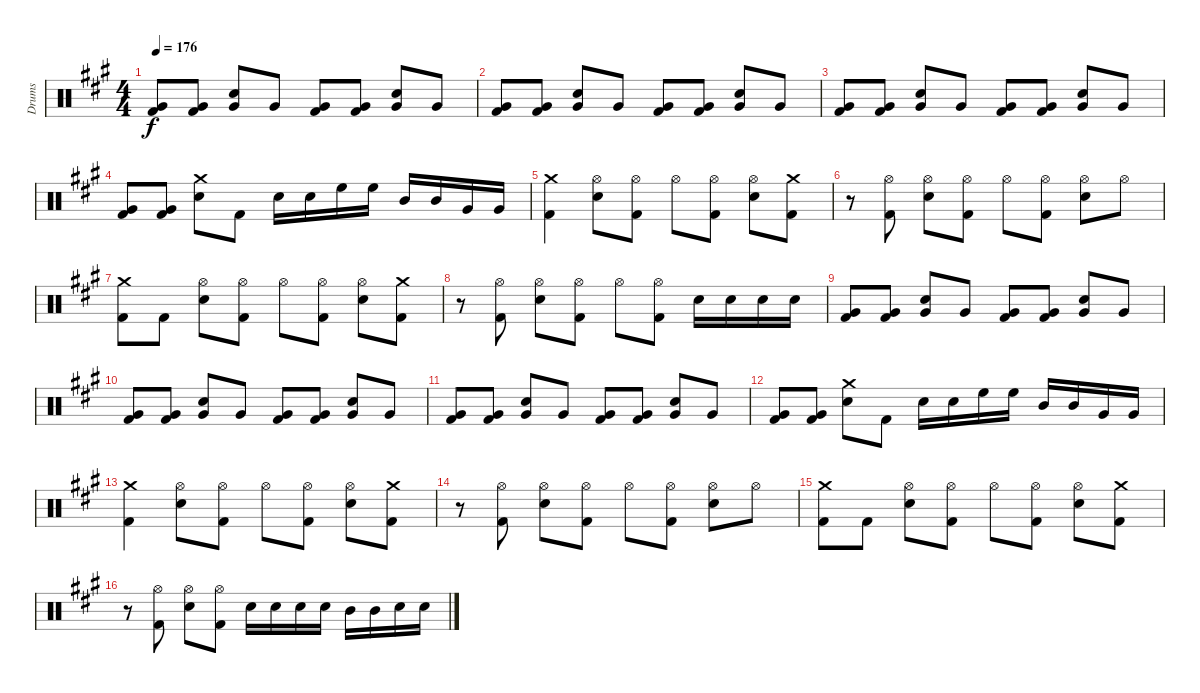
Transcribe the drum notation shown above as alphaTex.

\track ("Drums" "Drums") {instrument percussion}
\staff {score}
\articulation defaults
\ts (4 4)
\tempo 176
\clef neutral
\ks a
("Very Low Tom (hit)" "Kick (hit) 2").8{dy f} ("Very Low Tom (hit)" "Kick (hit) 2").8 ("Electric Snare (hit)" "Very Low Tom (hit)").8 "Very Low Tom (hit)".8 ("Very Low Tom (hit)" "Kick (hit) 2").8 ("Very Low Tom (hit)" "Kick (hit) 2").8 ("Electric Snare (hit)" "Very Low Tom (hit)").8 "Very Low Tom (hit)".8 |
("Very Low Tom (hit)" "Kick (hit) 2").8 ("Very Low Tom (hit)" "Kick (hit) 2").8 ("Electric Snare (hit)" "Very Low Tom (hit)").8 "Very Low Tom (hit)".8 ("Very Low Tom (hit)" "Kick (hit) 2").8 ("Very Low Tom (hit)" "Kick (hit) 2").8 ("Electric Snare (hit)" "Very Low Tom (hit)").8 "Very Low Tom (hit)".8 |
("Very Low Tom (hit)" "Kick (hit) 2").8 ("Very Low Tom (hit)" "Kick (hit) 2").8 ("Electric Snare (hit)" "Very Low Tom (hit)").8 "Very Low Tom (hit)".8 ("Very Low Tom (hit)" "Kick (hit) 2").8 ("Very Low Tom (hit)" "Kick (hit) 2").8 ("Electric Snare (hit)" "Very Low Tom (hit)").8 "Very Low Tom (hit)".8 |
("Very Low Tom (hit)" "Kick (hit) 2").8 ("Very Low Tom (hit)" "Kick (hit) 2").8 ("Crash medium (hit)" "Electric Snare (hit)").8 "Kick (hit) 2".8 "Electric Snare (hit)".16 "Electric Snare (hit)".16 "High Floor Tom (hit)".16 "High Floor Tom (hit)".16 "Mid Tom (hit)".16 "Mid Tom (hit)".16 "Very Low Tom (hit)".16 "Very Low Tom (hit)".16 |
("Crash medium (hit)" "Kick (hit) 2").4 ("Hi-Hat (open)" "Electric Snare (hit)").8 ("Hi-Hat (open)" "Kick (hit) 2").8 "Hi-Hat (open)".8 ("Hi-Hat (open)" "Kick (hit) 2").8 ("Hi-Hat (open)" "Electric Snare (hit)").8 ("Crash medium (hit)" "Kick (hit) 2").8 |
r.8 ("Hi-Hat (open)" "Kick (hit) 2").8 ("Hi-Hat (open)" "Electric Snare (hit)").8 ("Hi-Hat (open)" "Kick (hit) 2").8 "Hi-Hat (open)".8 ("Hi-Hat (open)" "Kick (hit) 2").8 ("Hi-Hat (open)" "Electric Snare (hit)").8 "Hi-Hat (open)".8 |
("Crash medium (hit)" "Kick (hit) 2").8 "Kick (hit) 2".8 ("Hi-Hat (open)" "Electric Snare (hit)").8 ("Hi-Hat (open)" "Kick (hit) 2").8 "Hi-Hat (open)".8 ("Hi-Hat (open)" "Kick (hit) 2").8 ("Hi-Hat (open)" "Electric Snare (hit)").8 ("Crash medium (hit)" "Kick (hit) 2").8 |
r.8 ("Hi-Hat (open)" "Kick (hit) 2").8 ("Hi-Hat (open)" "Electric Snare (hit)").8 ("Hi-Hat (open)" "Kick (hit) 2").8 "Hi-Hat (open)".8 ("Hi-Hat (open)" "Kick (hit) 2").8 "Electric Snare (hit)".16 "Electric Snare (hit)".16 "Electric Snare (hit)".16 "Electric Snare (hit)".16 |
("Very Low Tom (hit)" "Kick (hit) 2").8 ("Very Low Tom (hit)" "Kick (hit) 2").8 ("Electric Snare (hit)" "Very Low Tom (hit)").8 "Very Low Tom (hit)".8 ("Very Low Tom (hit)" "Kick (hit) 2").8 ("Very Low Tom (hit)" "Kick (hit) 2").8 ("Electric Snare (hit)" "Very Low Tom (hit)").8 "Very Low Tom (hit)".8 |
("Very Low Tom (hit)" "Kick (hit) 2").8 ("Very Low Tom (hit)" "Kick (hit) 2").8 ("Electric Snare (hit)" "Very Low Tom (hit)").8 "Very Low Tom (hit)".8 ("Very Low Tom (hit)" "Kick (hit) 2").8 ("Very Low Tom (hit)" "Kick (hit) 2").8 ("Electric Snare (hit)" "Very Low Tom (hit)").8 "Very Low Tom (hit)".8 |
("Very Low Tom (hit)" "Kick (hit) 2").8 ("Very Low Tom (hit)" "Kick (hit) 2").8 ("Electric Snare (hit)" "Very Low Tom (hit)").8 "Very Low Tom (hit)".8 ("Very Low Tom (hit)" "Kick (hit) 2").8 ("Very Low Tom (hit)" "Kick (hit) 2").8 ("Electric Snare (hit)" "Very Low Tom (hit)").8 "Very Low Tom (hit)".8 |
("Very Low Tom (hit)" "Kick (hit) 2").8 ("Very Low Tom (hit)" "Kick (hit) 2").8 ("Crash medium (hit)" "Electric Snare (hit)").8 "Kick (hit) 2".8 "Electric Snare (hit)".16 "Electric Snare (hit)".16 "High Floor Tom (hit)".16 "High Floor Tom (hit)".16 "Mid Tom (hit)".16 "Mid Tom (hit)".16 "Very Low Tom (hit)".16 "Very Low Tom (hit)".16 |
("Crash medium (hit)" "Kick (hit) 2").4 ("Hi-Hat (open)" "Electric Snare (hit)").8 ("Hi-Hat (open)" "Kick (hit) 2").8 "Hi-Hat (open)".8 ("Hi-Hat (open)" "Kick (hit) 2").8 ("Hi-Hat (open)" "Electric Snare (hit)").8 ("Crash medium (hit)" "Kick (hit) 2").8 |
r.8 ("Hi-Hat (open)" "Kick (hit) 2").8 ("Hi-Hat (open)" "Electric Snare (hit)").8 ("Hi-Hat (open)" "Kick (hit) 2").8 "Hi-Hat (open)".8 ("Hi-Hat (open)" "Kick (hit) 2").8 ("Hi-Hat (open)" "Electric Snare (hit)").8 "Hi-Hat (open)".8 |
("Crash medium (hit)" "Kick (hit) 2").8 "Kick (hit) 2".8 ("Hi-Hat (open)" "Electric Snare (hit)").8 ("Hi-Hat (open)" "Kick (hit) 2").8 "Hi-Hat (open)".8 ("Hi-Hat (open)" "Kick (hit) 2").8 ("Hi-Hat (open)" "Electric Snare (hit)").8 ("Crash medium (hit)" "Kick (hit) 2").8 |
r.8 ("Hi-Hat (open)" "Kick (hit) 2").8 ("Hi-Hat (open)" "Electric Snare (hit)").8 ("Hi-Hat (open)" "Kick (hit) 2").8 "Electric Snare (hit)".16 "Electric Snare (hit)".16 "Electric Snare (hit)".16 "Electric Snare (hit)".16 "Mid Tom (hit)".16 "Mid Tom (hit)".16 "Electric Snare (hit)".16 "Electric Snare (hit)".16
